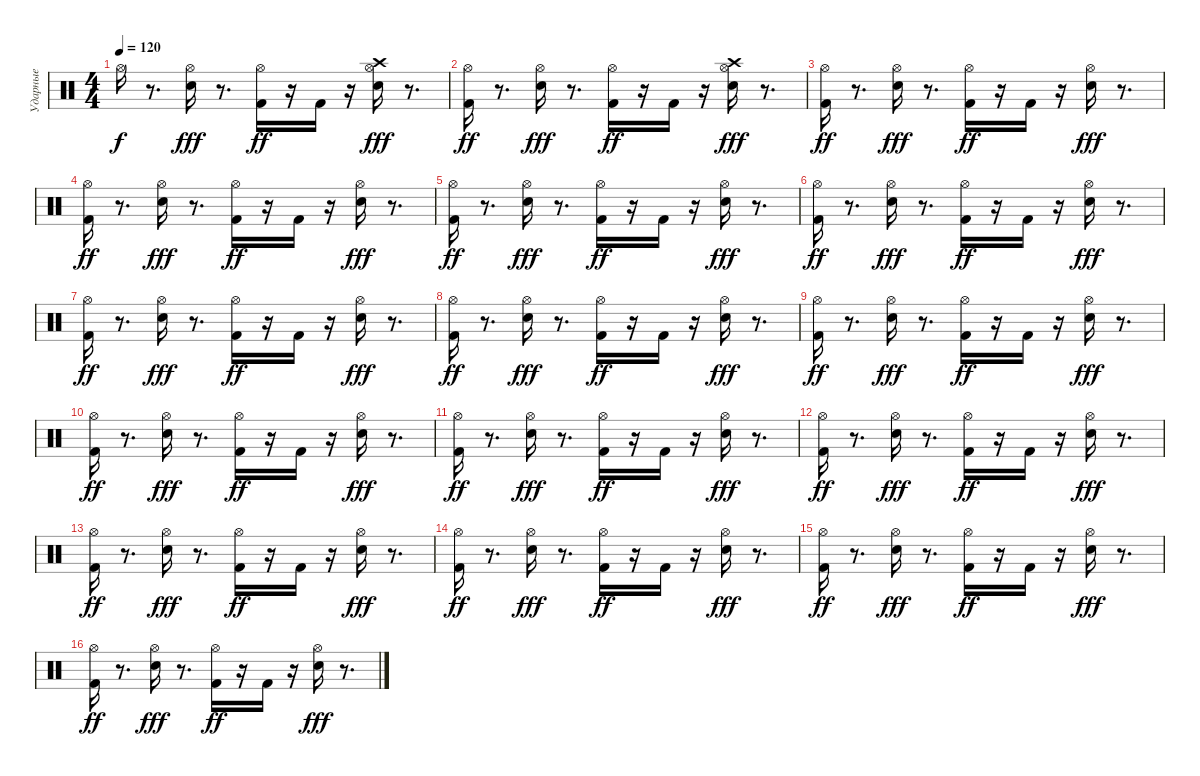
\track ("Ударные" "Ударные") {instrument percussion}
\staff {score}
\articulation defaults
\ts (4 4)
\tempo 120
\clef neutral
\ks c "Hi-Hat (open)".16{dy f}
r.8{d} ("Snare (hit) 2" "Hi-Hat (open)").16{dy fff} r.8{d} ("Kick (hit) 2" "Hi-Hat (open)").16{dy ff} r.16 "Kick (hit) 2".16 r.16 ("Snare (hit) 2" "Hi-Hat (open)" "Crash high (hit)").16{dy fff} r.8{d} |
("Kick (hit) 2" "Hi-Hat (open)").16{dy ff} r.8{d} ("Snare (hit) 2" "Hi-Hat (open)").16{dy fff} r.8{d} ("Kick (hit) 2" "Hi-Hat (open)").16{dy ff} r.16 "Kick (hit) 2".16 r.16 ("Snare (hit) 2" "Hi-Hat (open)" "Crash high (hit)").16{dy fff} r.8{d} |
("Kick (hit) 2" "Hi-Hat (open)").16{dy ff} r.8{d} ("Snare (hit) 2" "Hi-Hat (open)").16{dy fff} r.8{d} ("Kick (hit) 2" "Hi-Hat (open)").16{dy ff} r.16 "Kick (hit) 2".16 r.16 ("Snare (hit) 2" "Hi-Hat (open)").16{dy fff} r.8{d} |
("Kick (hit) 2" "Hi-Hat (open)").16{dy ff} r.8{d} ("Snare (hit) 2" "Hi-Hat (open)").16{dy fff} r.8{d} ("Kick (hit) 2" "Hi-Hat (open)").16{dy ff} r.16 "Kick (hit) 2".16 r.16 ("Snare (hit) 2" "Hi-Hat (open)").16{dy fff} r.8{d} |
("Kick (hit) 2" "Hi-Hat (open)").16{dy ff} r.8{d} ("Snare (hit) 2" "Hi-Hat (open)").16{dy fff} r.8{d} ("Kick (hit) 2" "Hi-Hat (open)").16{dy ff} r.16 "Kick (hit) 2".16 r.16 ("Snare (hit) 2" "Hi-Hat (open)").16{dy fff} r.8{d} |
("Kick (hit) 2" "Hi-Hat (open)").16{dy ff} r.8{d} ("Snare (hit) 2" "Hi-Hat (open)").16{dy fff} r.8{d} ("Kick (hit) 2" "Hi-Hat (open)").16{dy ff} r.16 "Kick (hit) 2".16 r.16 ("Snare (hit) 2" "Hi-Hat (open)").16{dy fff} r.8{d} |
("Kick (hit) 2" "Hi-Hat (open)").16{dy ff} r.8{d} ("Snare (hit) 2" "Hi-Hat (open)").16{dy fff} r.8{d} ("Kick (hit) 2" "Hi-Hat (open)").16{dy ff} r.16 "Kick (hit) 2".16 r.16 ("Snare (hit) 2" "Hi-Hat (open)").16{dy fff} r.8{d} |
("Kick (hit) 2" "Hi-Hat (open)").16{dy ff} r.8{d} ("Snare (hit) 2" "Hi-Hat (open)").16{dy fff} r.8{d} ("Kick (hit) 2" "Hi-Hat (open)").16{dy ff} r.16 "Kick (hit) 2".16 r.16 ("Snare (hit) 2" "Hi-Hat (open)").16{dy fff} r.8{d} |
("Kick (hit) 2" "Hi-Hat (open)").16{dy ff} r.8{d} ("Snare (hit) 2" "Hi-Hat (open)").16{dy fff} r.8{d} ("Kick (hit) 2" "Hi-Hat (open)").16{dy ff} r.16 "Kick (hit) 2".16 r.16 ("Snare (hit) 2" "Hi-Hat (open)").16{dy fff} r.8{d} |
("Kick (hit) 2" "Hi-Hat (open)").16{dy ff} r.8{d} ("Snare (hit) 2" "Hi-Hat (open)").16{dy fff} r.8{d} ("Kick (hit) 2" "Hi-Hat (open)").16{dy ff} r.16 "Kick (hit) 2".16 r.16 ("Snare (hit) 2" "Hi-Hat (open)").16{dy fff} r.8{d} |
("Kick (hit) 2" "Hi-Hat (open)").16{dy ff} r.8{d} ("Snare (hit) 2" "Hi-Hat (open)").16{dy fff} r.8{d} ("Kick (hit) 2" "Hi-Hat (open)").16{dy ff} r.16 "Kick (hit) 2".16 r.16 ("Snare (hit) 2" "Hi-Hat (open)").16{dy fff} r.8{d} |
("Kick (hit) 2" "Hi-Hat (open)").16{dy ff} r.8{d} ("Snare (hit) 2" "Hi-Hat (open)").16{dy fff} r.8{d} ("Kick (hit) 2" "Hi-Hat (open)").16{dy ff} r.16 "Kick (hit) 2".16 r.16 ("Snare (hit) 2" "Hi-Hat (open)").16{dy fff} r.8{d} |
("Kick (hit) 2" "Hi-Hat (open)").16{dy ff} r.8{d} ("Snare (hit) 2" "Hi-Hat (open)").16{dy fff} r.8{d} ("Kick (hit) 2" "Hi-Hat (open)").16{dy ff} r.16 "Kick (hit) 2".16 r.16 ("Snare (hit) 2" "Hi-Hat (open)").16{dy fff} r.8{d} |
("Kick (hit) 2" "Hi-Hat (open)").16{dy ff} r.8{d} ("Snare (hit) 2" "Hi-Hat (open)").16{dy fff} r.8{d} ("Kick (hit) 2" "Hi-Hat (open)").16{dy ff} r.16 "Kick (hit) 2".16 r.16 ("Snare (hit) 2" "Hi-Hat (open)").16{dy fff} r.8{d} |
("Kick (hit) 2" "Hi-Hat (open)").16{dy ff} r.8{d} ("Snare (hit) 2" "Hi-Hat (open)").16{dy fff} r.8{d} ("Kick (hit) 2" "Hi-Hat (open)").16{dy ff} r.16 "Kick (hit) 2".16 r.16 ("Snare (hit) 2" "Hi-Hat (open)").16{dy fff} r.8{d} |
("Kick (hit) 2" "Hi-Hat (open)").16{dy ff} r.8{d} ("Snare (hit) 2" "Hi-Hat (open)").16{dy fff} r.8{d} ("Kick (hit) 2" "Hi-Hat (open)").16{dy ff} r.16 "Kick (hit) 2".16 r.16 ("Snare (hit) 2" "Hi-Hat (open)").16{dy fff} r.8{d}
